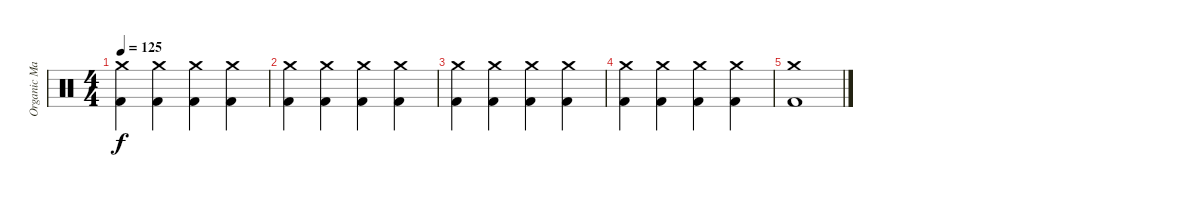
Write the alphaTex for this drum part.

\track ("Organic Masturbator Of 1000 Splatter Who" "Organic Ma") {instrument percussion}
\staff {score}
\articulation defaults
\ts (4 4)
\tempo 125
\clef neutral
\ks c
("Crash medium (hit)" "Kick (hit) 2").4{dy f} ("Crash medium (hit)" "Kick (hit) 2").4 ("Crash medium (hit)" "Kick (hit) 2").4 ("Crash medium (hit)" "Kick (hit) 2").4 |
("Crash medium (hit)" "Kick (hit) 2").4 ("Crash medium (hit)" "Kick (hit) 2").4 ("Crash medium (hit)" "Kick (hit) 2").4 ("Crash medium (hit)" "Kick (hit) 2").4 |
("Crash medium (hit)" "Kick (hit) 2").4 ("Crash medium (hit)" "Kick (hit) 2").4 ("Crash medium (hit)" "Kick (hit) 2").4 ("Crash medium (hit)" "Kick (hit) 2").4 |
("Crash medium (hit)" "Kick (hit) 2").4 ("Crash medium (hit)" "Kick (hit) 2").4 ("Crash medium (hit)" "Kick (hit) 2").4 ("Crash medium (hit)" "Kick (hit) 2").4 |
("Crash medium (hit)" "Kick (hit) 2").1
